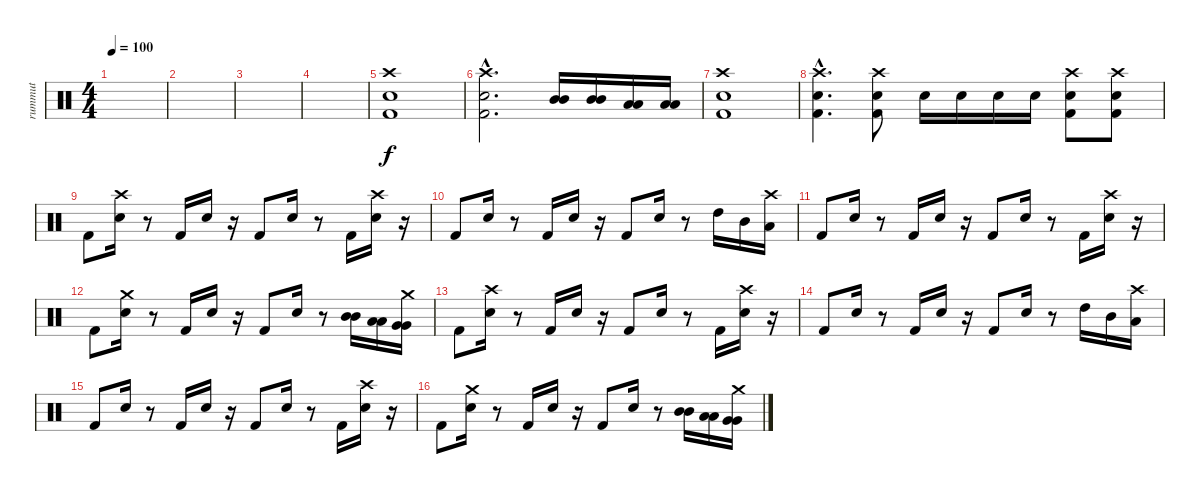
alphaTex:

\track ("rummut" "rummut") {instrument percussion}
\staff {score}
\articulation defaults
\ts (4 4)
\tempo 100
\clef neutral
\ks c
|
|
|
|
("Crash high (hit)" "Snare (hit) 2" "Kick (hit) 2").1 |
("Crash high (hit)"{hac} "Snare (hit) 2"{hac} "Kick (hit) 2"{hac}).2{d} ("Mid Tom (hit)" "Mid Tom (hit)").16 ("Mid Tom (hit)" "Mid Tom (hit)").16 ("Low Tom (hit)" "Low Tom (hit)").16 ("Low Tom (hit)" "Low Tom (hit)").16 |
("Crash high (hit)" "Snare (hit) 2" "Kick (hit) 2").1 |
("Crash high (hit)"{hac} "Snare (hit) 2"{hac} "Kick (hit) 2"{hac}).4{d} ("Crash high (hit)" "Snare (hit) 2" "Kick (hit) 2").8 "Electric Snare (hit)".16 "Electric Snare (hit)".16 "Electric Snare (hit)".16 "Electric Snare (hit)".16 ("Crash high (hit)" "Kick (hit) 2" "Snare (hit) 2").8 ("Crash high (hit)" "Kick (hit) 2" "Snare (hit) 2").8 |
"Kick (hit) 2".8 ("Crash high (hit)" "Snare (hit) 2").16 r.8 "Kick (hit) 2".16 "Snare (hit) 2".16 r.16 "Kick (hit) 2".8 "Snare (hit) 2".16 r.8 "Kick (hit) 2".16 ("Crash high (hit)" "Snare (hit) 2").16 r.16 |
"Kick (hit) 2".8 "Snare (hit) 2".16 r.8 "Kick (hit) 2".16 "Snare (hit) 2".16 r.16 "Kick (hit) 2".8 "Snare (hit) 2".16 r.8 "High Tom (hit)".16 "Mid Tom (hit)".16 ("Crash high (hit)" "Low Tom (hit)").16 |
"Kick (hit) 2".8 "Snare (hit) 2".16 r.8 "Kick (hit) 2".16 "Snare (hit) 2".16 r.16 "Kick (hit) 2".8 "Snare (hit) 2".16 r.8 "Kick (hit) 2".16 ("Crash high (hit)" "Snare (hit) 2").16 r.16 |
"Kick (hit) 2".8 ("Crash medium (hit)" "Snare (hit) 2").16 r.8 "Kick (hit) 2".16 "Snare (hit) 2".16 r.16 "Kick (hit) 2".8 "Snare (hit) 2".16 r.8 ("Mid Tom (hit)" "Mid Tom (hit)").16 ("Low Tom (hit)" "Low Tom (hit)").16 ("Crash medium (hit)" "Very Low Tom (hit)" "Very Low Tom (hit)").16 |
"Kick (hit) 2".8 ("Crash high (hit)" "Snare (hit) 2").16 r.8 "Kick (hit) 2".16 "Snare (hit) 2".16 r.16 "Kick (hit) 2".8 "Snare (hit) 2".16 r.8 "Kick (hit) 2".16 ("Crash high (hit)" "Snare (hit) 2").16 r.16 |
"Kick (hit) 2".8 "Snare (hit) 2".16 r.8 "Kick (hit) 2".16 "Snare (hit) 2".16 r.16 "Kick (hit) 2".8 "Snare (hit) 2".16 r.8 "High Tom (hit)".16 "Mid Tom (hit)".16 ("Crash high (hit)" "Low Tom (hit)").16 |
"Kick (hit) 2".8 "Snare (hit) 2".16 r.8 "Kick (hit) 2".16 "Snare (hit) 2".16 r.16 "Kick (hit) 2".8 "Snare (hit) 2".16 r.8 "Kick (hit) 2".16 ("Crash high (hit)" "Snare (hit) 2").16 r.16 |
"Kick (hit) 2".8 ("Crash medium (hit)" "Snare (hit) 2").16 r.8 "Kick (hit) 2".16 "Snare (hit) 2".16 r.16 "Kick (hit) 2".8 "Snare (hit) 2".16 r.8 ("Mid Tom (hit)" "Mid Tom (hit)").16 ("Low Tom (hit)" "Low Tom (hit)").16 ("Crash medium (hit)" "Very Low Tom (hit)" "Very Low Tom (hit)").16
